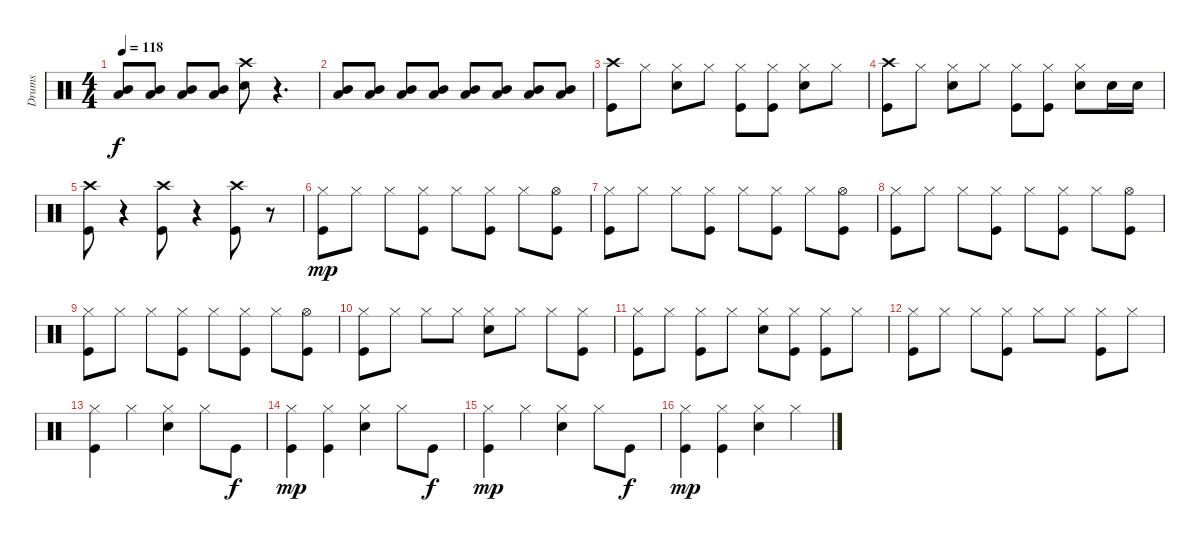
\track ("Drums" "Drums") {instrument percussion}
\staff {score}
\articulation defaults
\ts (4 4)
\tempo 118
\clef neutral
\ks c
("Low Tom (hit)" "Mid Tom (hit)").8{dy f} ("Low Tom (hit)" "Mid Tom (hit)").8 ("Low Tom (hit)" "Mid Tom (hit)").8 ("Low Tom (hit)" "Mid Tom (hit)").8 ("Snare (hit) 2" "Crash high (hit)").8 r.4{d} |
("Low Tom (hit)" "Mid Tom (hit)").8 ("Low Tom (hit)" "Mid Tom (hit)").8 ("Low Tom (hit)" "Mid Tom (hit)").8 ("Low Tom (hit)" "Mid Tom (hit)").8 ("Low Tom (hit)" "Mid Tom (hit)").8 ("Low Tom (hit)" "Mid Tom (hit)").8 ("Low Tom (hit)" "Mid Tom (hit)").8 ("Low Tom (hit)" "Mid Tom (hit)").8 |
("Kick (hit)" "Crash high (hit)").8 "Hi-Hat (closed)".8 ("Snare (hit) 2" "Hi-Hat (closed)").8 "Hi-Hat (closed)".8 ("Kick (hit)" "Hi-Hat (closed)").8 ("Kick (hit)" "Hi-Hat (closed)").8 ("Snare (hit) 2" "Hi-Hat (closed)").8 "Hi-Hat (closed)".8 |
("Kick (hit)" "Crash high (hit)").8 "Hi-Hat (closed)".8 ("Snare (hit) 2" "Hi-Hat (closed)").8 "Hi-Hat (closed)".8 ("Kick (hit)" "Hi-Hat (closed)").8 ("Kick (hit)" "Hi-Hat (closed)").8 ("Snare (hit) 2" "Hi-Hat (closed)").8 "Snare (hit) 2".16 "Snare (hit) 2".16 |
("Kick (hit)" "Crash high (hit)").8 r.4 ("Kick (hit)" "Crash high (hit)").8 r.4 ("Kick (hit)" "Crash high (hit)").8 r.8 |
("Kick (hit)" "Hi-Hat (closed)").8{dy mp} "Hi-Hat (closed)".8 "Hi-Hat (closed)".8 ("Kick (hit)" "Hi-Hat (closed)").8 "Hi-Hat (closed)".8 ("Kick (hit)" "Hi-Hat (closed)").8 "Hi-Hat (closed)".8 ("Kick (hit)" "Hi-Hat (open)").8 |
("Kick (hit)" "Hi-Hat (closed)").8 "Hi-Hat (closed)".8 "Hi-Hat (closed)".8 ("Kick (hit)" "Hi-Hat (closed)").8 "Hi-Hat (closed)".8 ("Kick (hit)" "Hi-Hat (closed)").8 "Hi-Hat (closed)".8 ("Kick (hit)" "Hi-Hat (open)").8 |
("Kick (hit)" "Hi-Hat (closed)").8 "Hi-Hat (closed)".8 "Hi-Hat (closed)".8 ("Kick (hit)" "Hi-Hat (closed)").8 "Hi-Hat (closed)".8 ("Kick (hit)" "Hi-Hat (closed)").8 "Hi-Hat (closed)".8 ("Kick (hit)" "Hi-Hat (open)").8 |
("Kick (hit)" "Hi-Hat (closed)").8 "Hi-Hat (closed)".8 "Hi-Hat (closed)".8 ("Kick (hit)" "Hi-Hat (closed)").8 "Hi-Hat (closed)".8 ("Kick (hit)" "Hi-Hat (closed)").8 "Hi-Hat (closed)".8 ("Kick (hit)" "Hi-Hat (open)").8 |
("Kick (hit)" "Hi-Hat (closed)").8 "Hi-Hat (closed)".8 "Hi-Hat (closed)".8 "Hi-Hat (closed)".8 ("Snare (hit) 2" "Hi-Hat (closed)").8 "Hi-Hat (closed)".8 "Hi-Hat (closed)".8 ("Kick (hit)" "Hi-Hat (closed)").8 |
("Kick (hit)" "Hi-Hat (closed)").8 "Hi-Hat (closed)".8 ("Kick (hit)" "Hi-Hat (closed)").8 "Hi-Hat (closed)".8 ("Snare (hit) 2" "Hi-Hat (closed)").8 ("Kick (hit)" "Hi-Hat (closed)").8 ("Kick (hit)" "Hi-Hat (closed)").8 "Hi-Hat (closed)".8 |
("Kick (hit)" "Hi-Hat (closed)").8 "Hi-Hat (closed)".8 "Hi-Hat (closed)".8 ("Kick (hit)" "Hi-Hat (closed)").8 "Hi-Hat (closed)".8 "Hi-Hat (closed)".8 ("Kick (hit)" "Hi-Hat (closed)").8 "Hi-Hat (closed)".8 |
("Kick (hit)" "Hi-Hat (closed)").4 "Hi-Hat (closed)".4 ("Snare (hit) 2" "Hi-Hat (closed)").4 "Hi-Hat (closed)".8 "Kick (hit)".8{dy f} |
("Kick (hit)" "Hi-Hat (closed)").4{dy mp} ("Kick (hit)" "Hi-Hat (closed)").4 ("Snare (hit) 2" "Hi-Hat (closed)").4 "Hi-Hat (closed)".8 "Kick (hit)".8{dy f} |
("Kick (hit)" "Hi-Hat (closed)").4{dy mp} "Hi-Hat (closed)".4 ("Snare (hit) 2" "Hi-Hat (closed)").4 "Hi-Hat (closed)".8 "Kick (hit)".8{dy f} |
("Kick (hit)" "Hi-Hat (closed)").4{dy mp} ("Kick (hit)" "Hi-Hat (closed)").4 ("Snare (hit) 2" "Hi-Hat (closed)").4 "Hi-Hat (closed)".4
